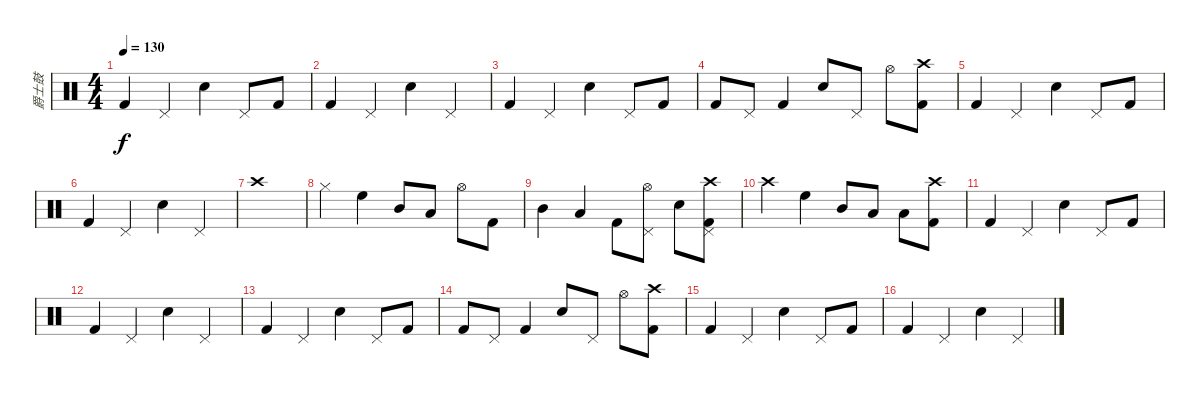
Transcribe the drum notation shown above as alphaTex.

\track ("爵士鼓" "爵士鼓") {instrument percussion}
\staff {score}
\articulation defaults
\ts (4 4)
\tempo 130
\clef neutral
\ks c "Kick (hit) 2".4{dy f} "Pedal Hi-Hat (hit)".4 "Snare (hit) 2".4 "Pedal Hi-Hat (hit)".8 "Kick (hit) 2".8
|
"Kick (hit) 2".4 "Pedal Hi-Hat (hit)".4 "Snare (hit) 2".4 "Pedal Hi-Hat (hit)".4 |
"Kick (hit) 2".4 "Pedal Hi-Hat (hit)".4 "Snare (hit) 2".4 "Pedal Hi-Hat (hit)".8 "Kick (hit) 2".8 |
"Kick (hit) 2".8 "Pedal Hi-Hat (hit)".8 "Kick (hit) 2".4 "Snare (hit) 2".8 "Pedal Hi-Hat (hit)".8 "Hi-Hat (open)".8 ("Kick (hit) 2" "Crash high (hit)").8 |
"Kick (hit) 2".4 "Pedal Hi-Hat (hit)".4 "Snare (hit) 2".4 "Pedal Hi-Hat (hit)".8 "Kick (hit) 2".8 |
"Kick (hit) 2".4 "Pedal Hi-Hat (hit)".4 "Snare (hit) 2".4 "Pedal Hi-Hat (hit)".4 |
"Crash high (hit)".1 |
"Hi-Hat (closed)".4 "High Floor Tom (hit)".4 "Mid Tom (hit)".8 "Low Tom (hit)".8 "Hi-Hat (open)".8 "Kick (hit) 2".8 |
"Mid Tom (hit)".4 "Low Tom (hit)".4 "Kick (hit) 2".8 ("Pedal Hi-Hat (hit)" "Hi-Hat (open)").8 "Snare (hit) 2".8 ("Pedal Hi-Hat (hit)" "Kick (hit) 2" "Crash high (hit)").8 |
"Crash high (hit)".4 "High Floor Tom (hit)".4 "Mid Tom (hit)".8 "Low Tom (hit)".8 "Low Floor Tom (hit)".8 ("Crash high (hit)" "Kick (hit) 2").8 |
"Kick (hit) 2".4 "Pedal Hi-Hat (hit)".4 "Snare (hit) 2".4 "Pedal Hi-Hat (hit)".8 "Kick (hit) 2".8 |
"Kick (hit) 2".4 "Pedal Hi-Hat (hit)".4 "Snare (hit) 2".4 "Pedal Hi-Hat (hit)".4 |
"Kick (hit) 2".4 "Pedal Hi-Hat (hit)".4 "Snare (hit) 2".4 "Pedal Hi-Hat (hit)".8 "Kick (hit) 2".8 |
"Kick (hit) 2".8 "Pedal Hi-Hat (hit)".8 "Kick (hit) 2".4 "Snare (hit) 2".8 "Pedal Hi-Hat (hit)".8 "Hi-Hat (open)".8 ("Kick (hit) 2" "Crash high (hit)").8 |
"Kick (hit) 2".4 "Pedal Hi-Hat (hit)".4 "Snare (hit) 2".4 "Pedal Hi-Hat (hit)".8 "Kick (hit) 2".8 |
"Kick (hit) 2".4 "Pedal Hi-Hat (hit)".4 "Snare (hit) 2".4 "Pedal Hi-Hat (hit)".4
